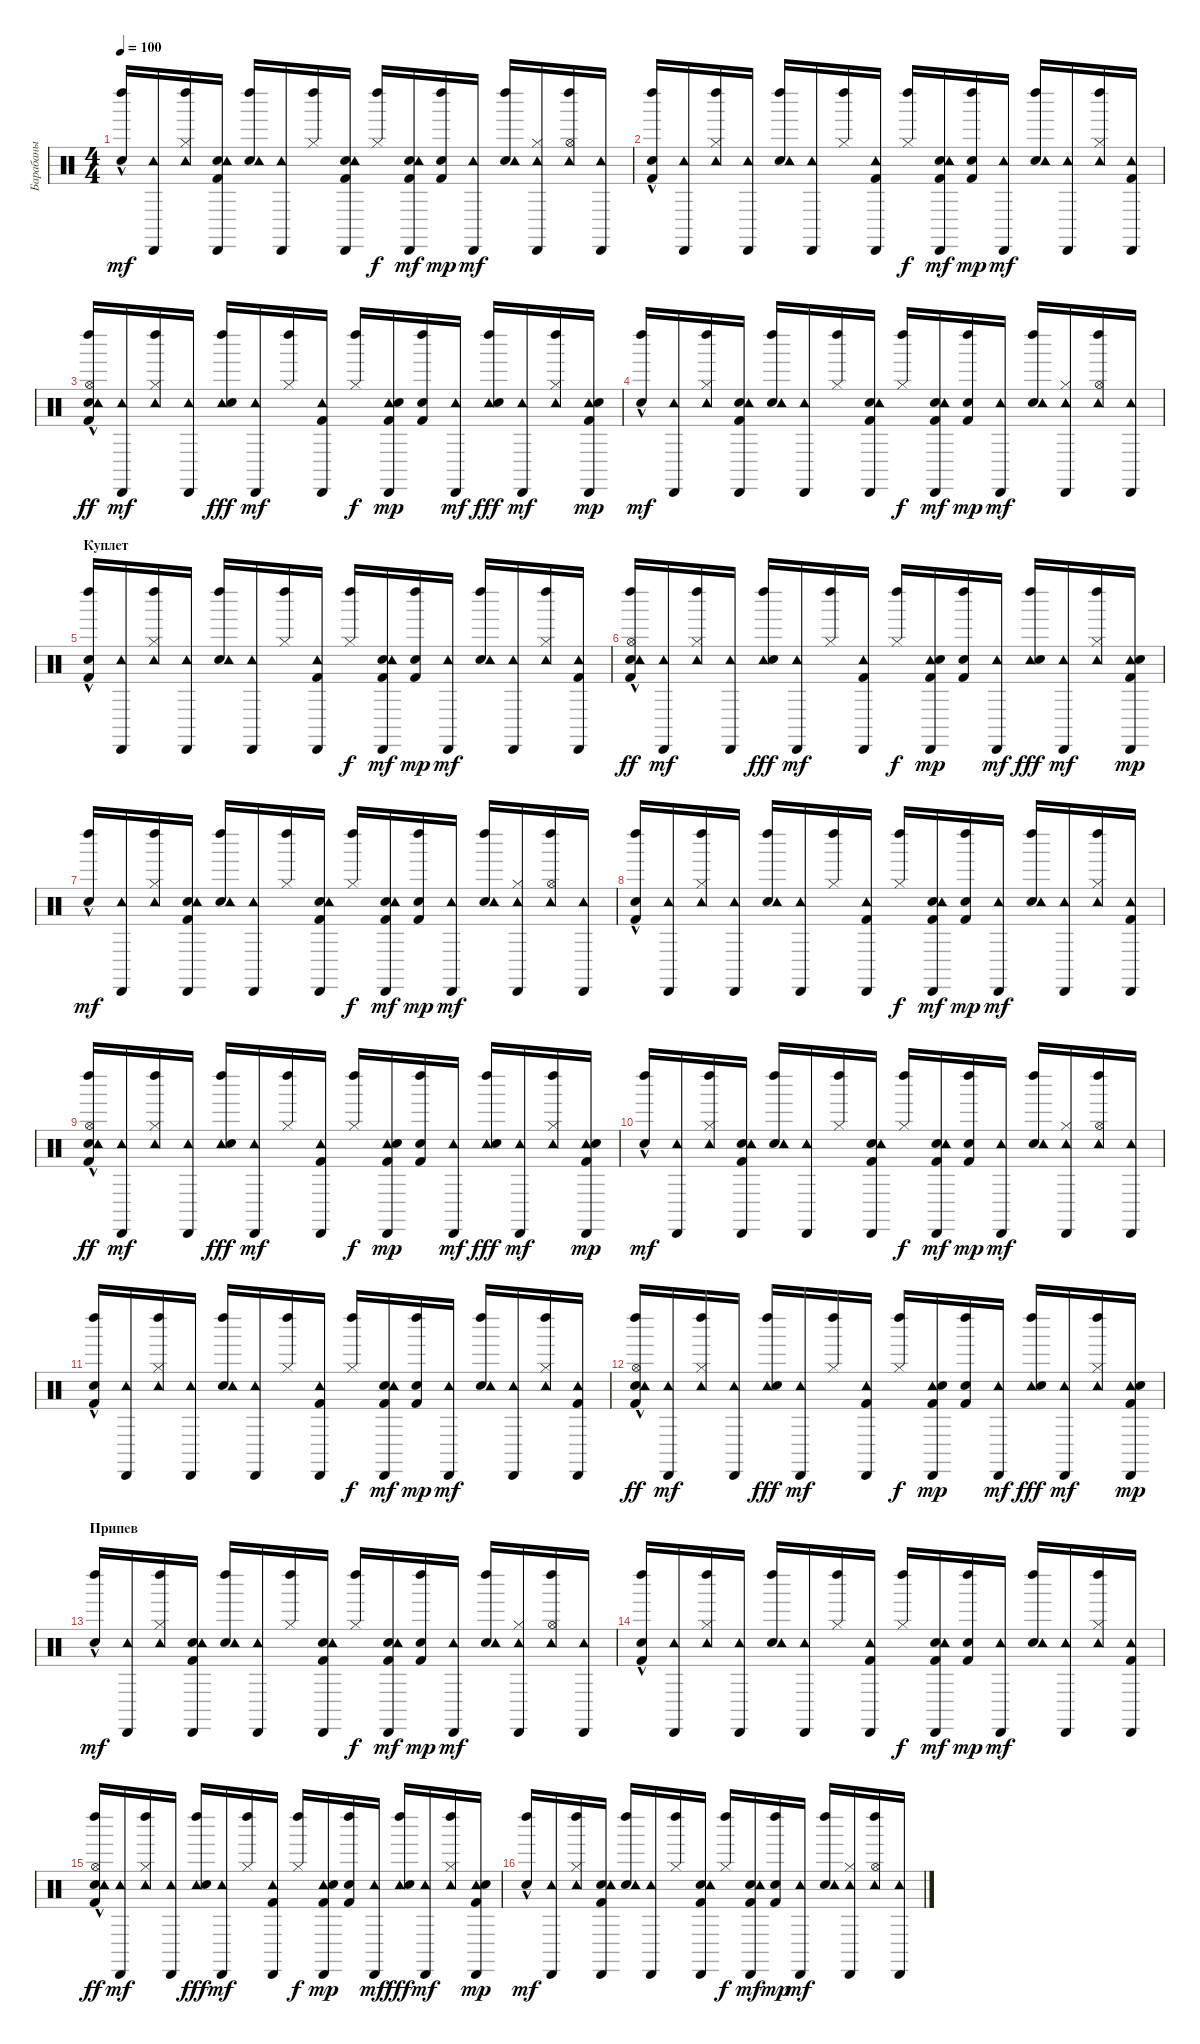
\track ("Барабаны" "Барабаны") {instrument percussion}
\staff {score}
\articulation defaults
\ts (4 4)
\tempo 100
\clef neutral
\ks c
("Electric Snare (hit)"{hac} "Left Maraca (hit)").16{dy mf balance 8} ("Cabasa (hit)" "Tambourine (hit)").16 ("Hi-Hat (closed)" "Left Maraca (hit)" "Tambourine (hit)").16 ("Electric Snare (hit)" "Kick (hit) 2" "Cabasa (hit)" "Tambourine (hit)").16 ("Electric Snare (hit)" "Left Maraca (hit)" "Tambourine (hit)").16 ("Cabasa (hit)" "Tambourine (hit)").16 ("Hi-Hat (closed)" "Left Maraca (hit)").16 ("Electric Snare (hit)" "Kick (hit) 2" "Cabasa (hit)" "Tambourine (hit)").16 ("Hi-Hat (closed)" "Left Maraca (hit)").16{dy f} ("Electric Snare (hit)" "Kick (hit) 2" "Cabasa (hit)" "Tambourine (hit)").16{dy mf} ("Electric Snare (hit)" "Left Maraca (hit)" "Kick (hit) 2").16{dy mp} ("Cabasa (hit)" "Tambourine (hit)").16{dy mf} ("Electric Snare (hit)" "Left Maraca (hit)" "Tambourine (hit)").16 ("Hi-Hat (closed)" "Cabasa (hit)" "Tambourine (hit)").16 ("Tambourine (hit)" "Hi-Hat (open)" "Left Maraca (hit)").16 ("Cabasa (hit)" "Tambourine (hit)").16 |
("Electric Snare (hit)"{hac} "Left Maraca (hit)" "Kick (hit) 2").16 ("Cabasa (hit)" "Tambourine (hit)").16 ("Hi-Hat (closed)" "Left Maraca (hit)" "Tambourine (hit)").16 ("Cabasa (hit)" "Tambourine (hit)").16 ("Electric Snare (hit)" "Left Maraca (hit)" "Tambourine (hit)").16 ("Cabasa (hit)" "Tambourine (hit)").16 ("Hi-Hat (closed)" "Left Maraca (hit)").16 ("Cabasa (hit)" "Kick (hit) 2" "Tambourine (hit)").16 ("Hi-Hat (closed)" "Left Maraca (hit)").16{dy f} ("Electric Snare (hit)" "Cabasa (hit)" "Kick (hit) 2" "Tambourine (hit)").16{dy mf} ("Electric Snare (hit)" "Left Maraca (hit)" "Kick (hit) 2").16{dy mp} ("Cabasa (hit)" "Tambourine (hit)").16{dy mf} ("Electric Snare (hit)" "Left Maraca (hit)" "Tambourine (hit)").16 ("Cabasa (hit)" "Tambourine (hit)").16 ("Hi-Hat (closed)" "Left Maraca (hit)" "Tambourine (hit)").16 ("Cabasa (hit)" "Kick (hit) 2" "Tambourine (hit)").16 |
("Electric Snare (hit)"{hac} "Tambourine (hit)" "Hi-Hat (open)" "Kick (hit) 2" "Left Maraca (hit)").16{dy ff} ("Tambourine (hit)" "Cabasa (hit)").16{dy mf} ("Tambourine (hit)" "Hi-Hat (closed)" "Left Maraca (hit)").16 ("Tambourine (hit)" "Cabasa (hit)").16 ("Tambourine (hit)" "Electric Snare (hit)" "Left Maraca (hit)").16{dy fff} ("Tambourine (hit)" "Cabasa (hit)").16{dy mf} ("Hi-Hat (closed)" "Left Maraca (hit)").16 ("Tambourine (hit)" "Cabasa (hit)" "Kick (hit) 2").16 ("Hi-Hat (closed)" "Left Maraca (hit)").16{dy f} ("Tambourine (hit)" "Electric Snare (hit)" "Kick (hit) 2" "Cabasa (hit)").16{dy mp} ("Electric Snare (hit)" "Left Maraca (hit)" "Kick (hit) 2").16 ("Tambourine (hit)" "Cabasa (hit)").16{dy mf} ("Tambourine (hit)" "Electric Snare (hit)" "Left Maraca (hit)").16{dy fff} ("Tambourine (hit)" "Cabasa (hit)").16{dy mf} ("Tambourine (hit)" "Hi-Hat (closed)" "Left Maraca (hit)").16 ("Tambourine (hit)" "Electric Snare (hit)" "Kick (hit) 2" "Cabasa (hit)").16{dy mp} |
("Electric Snare (hit)"{hac} "Left Maraca (hit)").16{dy mf balance 8} ("Cabasa (hit)" "Tambourine (hit)").16 ("Hi-Hat (closed)" "Left Maraca (hit)" "Tambourine (hit)").16 ("Electric Snare (hit)" "Kick (hit) 2" "Cabasa (hit)" "Tambourine (hit)").16 ("Electric Snare (hit)" "Left Maraca (hit)" "Tambourine (hit)").16 ("Cabasa (hit)" "Tambourine (hit)").16 ("Hi-Hat (closed)" "Left Maraca (hit)").16 ("Electric Snare (hit)" "Kick (hit) 2" "Cabasa (hit)" "Tambourine (hit)").16 ("Hi-Hat (closed)" "Left Maraca (hit)").16{dy f} ("Electric Snare (hit)" "Kick (hit) 2" "Cabasa (hit)" "Tambourine (hit)").16{dy mf} ("Electric Snare (hit)" "Left Maraca (hit)" "Kick (hit) 2").16{dy mp} ("Cabasa (hit)" "Tambourine (hit)").16{dy mf} ("Electric Snare (hit)" "Left Maraca (hit)" "Tambourine (hit)").16 ("Hi-Hat (closed)" "Cabasa (hit)" "Tambourine (hit)").16 ("Tambourine (hit)" "Hi-Hat (open)" "Left Maraca (hit)").16 ("Cabasa (hit)" "Tambourine (hit)").16 |
\section ("" "Куплет")
("Electric Snare (hit)"{hac} "Left Maraca (hit)" "Kick (hit) 2").16 ("Cabasa (hit)" "Tambourine (hit)").16 ("Hi-Hat (closed)" "Left Maraca (hit)" "Tambourine (hit)").16 ("Cabasa (hit)" "Tambourine (hit)").16 ("Electric Snare (hit)" "Left Maraca (hit)" "Tambourine (hit)").16 ("Cabasa (hit)" "Tambourine (hit)").16 ("Hi-Hat (closed)" "Left Maraca (hit)").16 ("Cabasa (hit)" "Kick (hit) 2" "Tambourine (hit)").16 ("Hi-Hat (closed)" "Left Maraca (hit)").16{dy f} ("Electric Snare (hit)" "Cabasa (hit)" "Kick (hit) 2" "Tambourine (hit)").16{dy mf} ("Electric Snare (hit)" "Left Maraca (hit)" "Kick (hit) 2").16{dy mp} ("Cabasa (hit)" "Tambourine (hit)").16{dy mf} ("Electric Snare (hit)" "Left Maraca (hit)" "Tambourine (hit)").16 ("Cabasa (hit)" "Tambourine (hit)").16 ("Hi-Hat (closed)" "Left Maraca (hit)" "Tambourine (hit)").16 ("Cabasa (hit)" "Kick (hit) 2" "Tambourine (hit)").16 |
("Electric Snare (hit)"{hac} "Tambourine (hit)" "Hi-Hat (open)" "Kick (hit) 2" "Left Maraca (hit)").16{dy ff} ("Tambourine (hit)" "Cabasa (hit)").16{dy mf} ("Tambourine (hit)" "Hi-Hat (closed)" "Left Maraca (hit)").16 ("Tambourine (hit)" "Cabasa (hit)").16 ("Tambourine (hit)" "Electric Snare (hit)" "Left Maraca (hit)").16{dy fff} ("Tambourine (hit)" "Cabasa (hit)").16{dy mf} ("Hi-Hat (closed)" "Left Maraca (hit)").16 ("Tambourine (hit)" "Cabasa (hit)" "Kick (hit) 2").16 ("Hi-Hat (closed)" "Left Maraca (hit)").16{dy f} ("Tambourine (hit)" "Electric Snare (hit)" "Kick (hit) 2" "Cabasa (hit)").16{dy mp} ("Electric Snare (hit)" "Left Maraca (hit)" "Kick (hit) 2").16 ("Tambourine (hit)" "Cabasa (hit)").16{dy mf} ("Tambourine (hit)" "Electric Snare (hit)" "Left Maraca (hit)").16{dy fff} ("Tambourine (hit)" "Cabasa (hit)").16{dy mf} ("Tambourine (hit)" "Hi-Hat (closed)" "Left Maraca (hit)").16 ("Tambourine (hit)" "Electric Snare (hit)" "Kick (hit) 2" "Cabasa (hit)").16{dy mp} |
("Electric Snare (hit)"{hac} "Left Maraca (hit)").16{dy mf balance 8} ("Cabasa (hit)" "Tambourine (hit)").16 ("Hi-Hat (closed)" "Left Maraca (hit)" "Tambourine (hit)").16 ("Electric Snare (hit)" "Kick (hit) 2" "Cabasa (hit)" "Tambourine (hit)").16 ("Electric Snare (hit)" "Left Maraca (hit)" "Tambourine (hit)").16 ("Cabasa (hit)" "Tambourine (hit)").16 ("Hi-Hat (closed)" "Left Maraca (hit)").16 ("Electric Snare (hit)" "Kick (hit) 2" "Cabasa (hit)" "Tambourine (hit)").16 ("Hi-Hat (closed)" "Left Maraca (hit)").16{dy f} ("Electric Snare (hit)" "Kick (hit) 2" "Cabasa (hit)" "Tambourine (hit)").16{dy mf} ("Electric Snare (hit)" "Left Maraca (hit)" "Kick (hit) 2").16{dy mp} ("Cabasa (hit)" "Tambourine (hit)").16{dy mf} ("Electric Snare (hit)" "Left Maraca (hit)" "Tambourine (hit)").16 ("Hi-Hat (closed)" "Cabasa (hit)" "Tambourine (hit)").16 ("Tambourine (hit)" "Hi-Hat (open)" "Left Maraca (hit)").16 ("Cabasa (hit)" "Tambourine (hit)").16 |
("Electric Snare (hit)"{hac} "Left Maraca (hit)" "Kick (hit) 2").16 ("Cabasa (hit)" "Tambourine (hit)").16 ("Hi-Hat (closed)" "Left Maraca (hit)" "Tambourine (hit)").16 ("Cabasa (hit)" "Tambourine (hit)").16 ("Electric Snare (hit)" "Left Maraca (hit)" "Tambourine (hit)").16 ("Cabasa (hit)" "Tambourine (hit)").16 ("Hi-Hat (closed)" "Left Maraca (hit)").16 ("Cabasa (hit)" "Kick (hit) 2" "Tambourine (hit)").16 ("Hi-Hat (closed)" "Left Maraca (hit)").16{dy f} ("Electric Snare (hit)" "Cabasa (hit)" "Kick (hit) 2" "Tambourine (hit)").16{dy mf} ("Electric Snare (hit)" "Left Maraca (hit)" "Kick (hit) 2").16{dy mp} ("Cabasa (hit)" "Tambourine (hit)").16{dy mf} ("Electric Snare (hit)" "Left Maraca (hit)" "Tambourine (hit)").16 ("Cabasa (hit)" "Tambourine (hit)").16 ("Hi-Hat (closed)" "Left Maraca (hit)" "Tambourine (hit)").16 ("Cabasa (hit)" "Kick (hit) 2" "Tambourine (hit)").16 |
("Electric Snare (hit)"{hac} "Tambourine (hit)" "Hi-Hat (open)" "Kick (hit) 2" "Left Maraca (hit)").16{dy ff} ("Tambourine (hit)" "Cabasa (hit)").16{dy mf} ("Tambourine (hit)" "Hi-Hat (closed)" "Left Maraca (hit)").16 ("Tambourine (hit)" "Cabasa (hit)").16 ("Tambourine (hit)" "Electric Snare (hit)" "Left Maraca (hit)").16{dy fff} ("Tambourine (hit)" "Cabasa (hit)").16{dy mf} ("Hi-Hat (closed)" "Left Maraca (hit)").16 ("Tambourine (hit)" "Cabasa (hit)" "Kick (hit) 2").16 ("Hi-Hat (closed)" "Left Maraca (hit)").16{dy f} ("Tambourine (hit)" "Electric Snare (hit)" "Kick (hit) 2" "Cabasa (hit)").16{dy mp} ("Electric Snare (hit)" "Left Maraca (hit)" "Kick (hit) 2").16 ("Tambourine (hit)" "Cabasa (hit)").16{dy mf} ("Tambourine (hit)" "Electric Snare (hit)" "Left Maraca (hit)").16{dy fff} ("Tambourine (hit)" "Cabasa (hit)").16{dy mf} ("Tambourine (hit)" "Hi-Hat (closed)" "Left Maraca (hit)").16 ("Tambourine (hit)" "Electric Snare (hit)" "Kick (hit) 2" "Cabasa (hit)").16{dy mp} |
("Electric Snare (hit)"{hac} "Left Maraca (hit)").16{dy mf balance 8} ("Cabasa (hit)" "Tambourine (hit)").16 ("Hi-Hat (closed)" "Left Maraca (hit)" "Tambourine (hit)").16 ("Electric Snare (hit)" "Kick (hit) 2" "Cabasa (hit)" "Tambourine (hit)").16 ("Electric Snare (hit)" "Left Maraca (hit)" "Tambourine (hit)").16 ("Cabasa (hit)" "Tambourine (hit)").16 ("Hi-Hat (closed)" "Left Maraca (hit)").16 ("Electric Snare (hit)" "Kick (hit) 2" "Cabasa (hit)" "Tambourine (hit)").16 ("Hi-Hat (closed)" "Left Maraca (hit)").16{dy f} ("Electric Snare (hit)" "Kick (hit) 2" "Cabasa (hit)" "Tambourine (hit)").16{dy mf} ("Electric Snare (hit)" "Left Maraca (hit)" "Kick (hit) 2").16{dy mp} ("Cabasa (hit)" "Tambourine (hit)").16{dy mf} ("Electric Snare (hit)" "Left Maraca (hit)" "Tambourine (hit)").16 ("Hi-Hat (closed)" "Cabasa (hit)" "Tambourine (hit)").16 ("Tambourine (hit)" "Hi-Hat (open)" "Left Maraca (hit)").16 ("Cabasa (hit)" "Tambourine (hit)").16 |
("Electric Snare (hit)"{hac} "Left Maraca (hit)" "Kick (hit) 2").16 ("Cabasa (hit)" "Tambourine (hit)").16 ("Hi-Hat (closed)" "Left Maraca (hit)" "Tambourine (hit)").16 ("Cabasa (hit)" "Tambourine (hit)").16 ("Electric Snare (hit)" "Left Maraca (hit)" "Tambourine (hit)").16 ("Cabasa (hit)" "Tambourine (hit)").16 ("Hi-Hat (closed)" "Left Maraca (hit)").16 ("Cabasa (hit)" "Kick (hit) 2" "Tambourine (hit)").16 ("Hi-Hat (closed)" "Left Maraca (hit)").16{dy f} ("Electric Snare (hit)" "Cabasa (hit)" "Kick (hit) 2" "Tambourine (hit)").16{dy mf} ("Electric Snare (hit)" "Left Maraca (hit)" "Kick (hit) 2").16{dy mp} ("Cabasa (hit)" "Tambourine (hit)").16{dy mf} ("Electric Snare (hit)" "Left Maraca (hit)" "Tambourine (hit)").16 ("Cabasa (hit)" "Tambourine (hit)").16 ("Hi-Hat (closed)" "Left Maraca (hit)" "Tambourine (hit)").16 ("Cabasa (hit)" "Kick (hit) 2" "Tambourine (hit)").16 |
("Electric Snare (hit)"{hac} "Tambourine (hit)" "Hi-Hat (open)" "Kick (hit) 2" "Left Maraca (hit)").16{dy ff} ("Tambourine (hit)" "Cabasa (hit)").16{dy mf} ("Tambourine (hit)" "Hi-Hat (closed)" "Left Maraca (hit)").16 ("Tambourine (hit)" "Cabasa (hit)").16 ("Tambourine (hit)" "Electric Snare (hit)" "Left Maraca (hit)").16{dy fff} ("Tambourine (hit)" "Cabasa (hit)").16{dy mf} ("Hi-Hat (closed)" "Left Maraca (hit)").16 ("Tambourine (hit)" "Cabasa (hit)" "Kick (hit) 2").16 ("Hi-Hat (closed)" "Left Maraca (hit)").16{dy f} ("Tambourine (hit)" "Electric Snare (hit)" "Kick (hit) 2" "Cabasa (hit)").16{dy mp} ("Electric Snare (hit)" "Left Maraca (hit)" "Kick (hit) 2").16 ("Tambourine (hit)" "Cabasa (hit)").16{dy mf} ("Tambourine (hit)" "Electric Snare (hit)" "Left Maraca (hit)").16{dy fff} ("Tambourine (hit)" "Cabasa (hit)").16{dy mf} ("Tambourine (hit)" "Hi-Hat (closed)" "Left Maraca (hit)").16 ("Tambourine (hit)" "Electric Snare (hit)" "Kick (hit) 2" "Cabasa (hit)").16{dy mp} |
\section ("" "Припев")
("Electric Snare (hit)"{hac} "Left Maraca (hit)").16{dy mf balance 8} ("Cabasa (hit)" "Tambourine (hit)").16 ("Hi-Hat (closed)" "Left Maraca (hit)" "Tambourine (hit)").16 ("Electric Snare (hit)" "Kick (hit) 2" "Cabasa (hit)" "Tambourine (hit)").16 ("Electric Snare (hit)" "Left Maraca (hit)" "Tambourine (hit)").16 ("Cabasa (hit)" "Tambourine (hit)").16 ("Hi-Hat (closed)" "Left Maraca (hit)").16 ("Electric Snare (hit)" "Kick (hit) 2" "Cabasa (hit)" "Tambourine (hit)").16 ("Hi-Hat (closed)" "Left Maraca (hit)").16{dy f} ("Electric Snare (hit)" "Kick (hit) 2" "Cabasa (hit)" "Tambourine (hit)").16{dy mf} ("Electric Snare (hit)" "Left Maraca (hit)" "Kick (hit) 2").16{dy mp} ("Cabasa (hit)" "Tambourine (hit)").16{dy mf} ("Electric Snare (hit)" "Left Maraca (hit)" "Tambourine (hit)").16 ("Hi-Hat (closed)" "Cabasa (hit)" "Tambourine (hit)").16 ("Tambourine (hit)" "Hi-Hat (open)" "Left Maraca (hit)").16 ("Cabasa (hit)" "Tambourine (hit)").16 |
("Electric Snare (hit)"{hac} "Left Maraca (hit)" "Kick (hit) 2").16 ("Cabasa (hit)" "Tambourine (hit)").16 ("Hi-Hat (closed)" "Left Maraca (hit)" "Tambourine (hit)").16 ("Cabasa (hit)" "Tambourine (hit)").16 ("Electric Snare (hit)" "Left Maraca (hit)" "Tambourine (hit)").16 ("Cabasa (hit)" "Tambourine (hit)").16 ("Hi-Hat (closed)" "Left Maraca (hit)").16 ("Cabasa (hit)" "Kick (hit) 2" "Tambourine (hit)").16 ("Hi-Hat (closed)" "Left Maraca (hit)").16{dy f} ("Electric Snare (hit)" "Cabasa (hit)" "Kick (hit) 2" "Tambourine (hit)").16{dy mf} ("Electric Snare (hit)" "Left Maraca (hit)" "Kick (hit) 2").16{dy mp} ("Cabasa (hit)" "Tambourine (hit)").16{dy mf} ("Electric Snare (hit)" "Left Maraca (hit)" "Tambourine (hit)").16 ("Cabasa (hit)" "Tambourine (hit)").16 ("Hi-Hat (closed)" "Left Maraca (hit)" "Tambourine (hit)").16 ("Cabasa (hit)" "Kick (hit) 2" "Tambourine (hit)").16 |
("Electric Snare (hit)"{hac} "Tambourine (hit)" "Hi-Hat (open)" "Kick (hit) 2" "Left Maraca (hit)").16{dy ff} ("Tambourine (hit)" "Cabasa (hit)").16{dy mf} ("Tambourine (hit)" "Hi-Hat (closed)" "Left Maraca (hit)").16 ("Tambourine (hit)" "Cabasa (hit)").16 ("Tambourine (hit)" "Electric Snare (hit)" "Left Maraca (hit)").16{dy fff} ("Tambourine (hit)" "Cabasa (hit)").16{dy mf} ("Hi-Hat (closed)" "Left Maraca (hit)").16 ("Tambourine (hit)" "Cabasa (hit)" "Kick (hit) 2").16 ("Hi-Hat (closed)" "Left Maraca (hit)").16{dy f} ("Tambourine (hit)" "Electric Snare (hit)" "Kick (hit) 2" "Cabasa (hit)").16{dy mp} ("Electric Snare (hit)" "Left Maraca (hit)" "Kick (hit) 2").16 ("Tambourine (hit)" "Cabasa (hit)").16{dy mf} ("Tambourine (hit)" "Electric Snare (hit)" "Left Maraca (hit)").16{dy fff} ("Tambourine (hit)" "Cabasa (hit)").16{dy mf} ("Tambourine (hit)" "Hi-Hat (closed)" "Left Maraca (hit)").16 ("Tambourine (hit)" "Electric Snare (hit)" "Kick (hit) 2" "Cabasa (hit)").16{dy mp} |
("Electric Snare (hit)"{hac} "Left Maraca (hit)").16{dy mf balance 8} ("Cabasa (hit)" "Tambourine (hit)").16 ("Hi-Hat (closed)" "Left Maraca (hit)" "Tambourine (hit)").16 ("Electric Snare (hit)" "Kick (hit) 2" "Cabasa (hit)" "Tambourine (hit)").16 ("Electric Snare (hit)" "Left Maraca (hit)" "Tambourine (hit)").16 ("Cabasa (hit)" "Tambourine (hit)").16 ("Hi-Hat (closed)" "Left Maraca (hit)").16 ("Electric Snare (hit)" "Kick (hit) 2" "Cabasa (hit)" "Tambourine (hit)").16 ("Hi-Hat (closed)" "Left Maraca (hit)").16{dy f} ("Electric Snare (hit)" "Kick (hit) 2" "Cabasa (hit)" "Tambourine (hit)").16{dy mf} ("Electric Snare (hit)" "Left Maraca (hit)" "Kick (hit) 2").16{dy mp} ("Cabasa (hit)" "Tambourine (hit)").16{dy mf} ("Electric Snare (hit)" "Left Maraca (hit)" "Tambourine (hit)").16 ("Hi-Hat (closed)" "Cabasa (hit)" "Tambourine (hit)").16 ("Tambourine (hit)" "Hi-Hat (open)" "Left Maraca (hit)").16 ("Cabasa (hit)" "Tambourine (hit)").16
